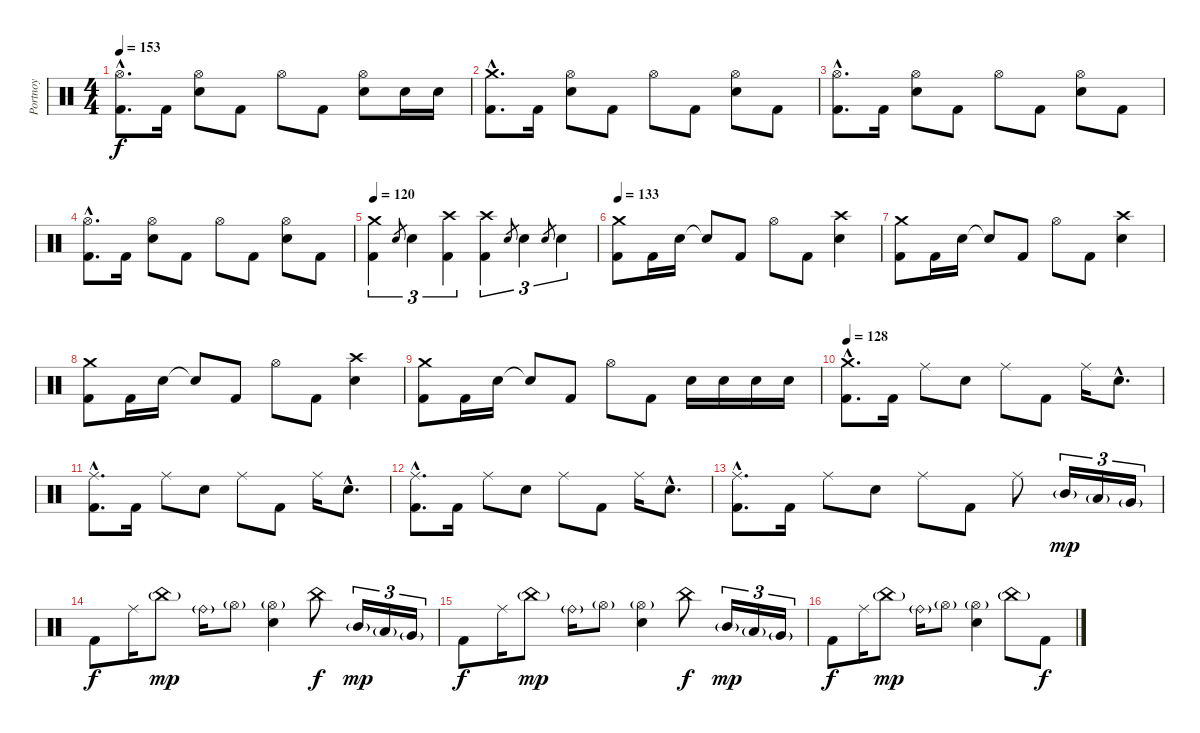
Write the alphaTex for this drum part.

\track ("Portnoy" "Portnoy") {instrument percussion}
\staff {score}
\articulation defaults
\ts (4 4)
\tempo 153
\clef neutral
\ks c
("Kick (hit) 2"{hac} "Hi-Hat (open)"{hac}).8{d dy f} "Kick (hit) 2".16 ("Electric Snare (hit)" "Hi-Hat (open)").8 "Kick (hit) 2".8 "Hi-Hat (open)".8 "Kick (hit) 2".8 ("Electric Snare (hit)" "Hi-Hat (open)").8 "Electric Snare (hit)".16 "Electric Snare (hit)".16 |
("Kick (hit) 2"{hac} "Crash medium (hit)"{hac}).8{d} "Kick (hit) 2".16 ("Electric Snare (hit)" "Hi-Hat (open)").8 "Kick (hit) 2".8 "Hi-Hat (open)".8 "Kick (hit) 2".8 ("Electric Snare (hit)" "Hi-Hat (open)").8 "Kick (hit) 2".8 |
("Kick (hit) 2"{hac} "Hi-Hat (open)"{hac}).8{d} "Kick (hit) 2".16 ("Electric Snare (hit)" "Hi-Hat (open)").8 "Kick (hit) 2".8 "Hi-Hat (open)".8 "Kick (hit) 2".8 ("Electric Snare (hit)" "Hi-Hat (open)").8 "Kick (hit) 2".8 |
("Kick (hit) 2"{hac} "Hi-Hat (open)"{hac}).8{d} "Kick (hit) 2".16 ("Electric Snare (hit)" "Hi-Hat (open)").8 "Kick (hit) 2".8 "Hi-Hat (open)".8 "Kick (hit) 2".8 ("Electric Snare (hit)" "Hi-Hat (open)").8 "Kick (hit) 2".8 |
\tempo 120
("Kick (hit) 2" "Crash medium (hit)").4{tu (3 2)} "Electric Snare (hit)".8{gr} "Electric Snare (hit)".4{tu (3 2)} ("Kick (hit) 2" "Crash high (hit)").4{tu (3 2)} ("Kick (hit) 2" "Crash high (hit)").4{tu (3 2)} "Electric Snare (hit)".8{gr} "Electric Snare (hit)".4{tu (3 2)} "Electric Snare (hit)".8{gr} "Electric Snare (hit)".4{tu (3 2)} |
\tempo 133
("Kick (hit) 2" "Crash medium (hit)").8 "Kick (hit) 2".16 "Electric Snare (hit)".16 "Snare (hit)"{t}.8 "Kick (hit) 2".8 "Hi-Hat (open)".8 "Kick (hit) 2".8 ("Electric Snare (hit)" "Crash high (hit)").4 |
("Kick (hit) 2" "Crash medium (hit)").8 "Kick (hit) 2".16 "Electric Snare (hit)".16 "Snare (hit)"{t}.8 "Kick (hit) 2".8 "Hi-Hat (open)".8 "Kick (hit) 2".8 ("Electric Snare (hit)" "Crash high (hit)").4 |
("Kick (hit) 2" "Crash medium (hit)").8 "Kick (hit) 2".16 "Electric Snare (hit)".16 "Snare (hit)"{t}.8 "Kick (hit) 2".8 "Hi-Hat (open)".8 "Kick (hit) 2".8 ("Electric Snare (hit)" "Crash high (hit)").4 |
("Kick (hit) 2" "Crash medium (hit)").8 "Kick (hit) 2".16 "Electric Snare (hit)".16 "Snare (hit)"{t}.8 "Kick (hit) 2".8 "Hi-Hat (open)".8 "Kick (hit) 2".8 "Electric Snare (hit)".16 "Electric Snare (hit)".16 "Electric Snare (hit)".16 "Electric Snare (hit)".16 |
\tempo 128
("Kick (hit) 2"{hac} "Crash medium (hit)"{hac}).8{d} "Kick (hit) 2".16 "Ride (middle)".8 "Electric Snare (hit)".8 "Ride (middle)".8 "Kick (hit) 2".8 "Ride (middle)".16 "Electric Snare (hit)"{hac}.8{d} |
("Kick (hit) 2"{hac} "Ride (middle)"{hac}).8{d} "Kick (hit) 2".16 "Ride (middle)".8 "Electric Snare (hit)".8 "Ride (middle)".8 "Kick (hit) 2".8 "Ride (middle)".16 "Electric Snare (hit)"{hac}.8{d} |
("Kick (hit) 2"{hac} "Ride (middle)"{hac}).8{d} "Kick (hit) 2".16 "Ride (middle)".8 "Electric Snare (hit)".8 "Ride (middle)".8 "Kick (hit) 2".8 "Ride (middle)".16 "Electric Snare (hit)"{hac}.8{d} |
("Kick (hit) 2"{hac} "Ride (middle)"{hac}).8{d} "Kick (hit) 2".16 "Ride (middle)".8 "Electric Snare (hit)".8 "Ride (middle)".8 "Kick (hit) 2".8 "Ride (middle)".8 "Mid Tom (hit)"{g}.16{tu (3 2) dy mp} "Low Tom (hit)"{g}.16{tu (3 2)} "Very Low Tom (hit)"{g}.16{tu (3 2)} |
"Kick (hit) 2".8{dy f} "Ride (middle)".16 "China (hit)"{g}.8{dy mp} "Ride (bell)"{g}.16 "Hi-Hat (open)"{g}.8 ("Electric Snare (hit)" "Hi-Hat (open)"{g}).4 "China (hit)"{pm}.8{dy f} "Mid Tom (hit)"{g}.16{tu (3 2) dy mp} "Low Tom (hit)"{g}.16{tu (3 2)} "Very Low Tom (hit)"{g}.16{tu (3 2)} |
"Kick (hit) 2".8{dy f} "Ride (middle)".16 "China (hit)"{g}.8{dy mp} "Ride (bell)"{g}.16 "Hi-Hat (open)"{g}.8 ("Electric Snare (hit)" "Hi-Hat (open)"{g}).4 "China (hit)"{pm}.8{dy f} "Mid Tom (hit)"{g}.16{tu (3 2) dy mp} "Low Tom (hit)"{g}.16{tu (3 2)} "Very Low Tom (hit)"{g}.16{tu (3 2)} |
"Kick (hit) 2".8{dy f} "Ride (middle)".16 "China (hit)"{g}.8{dy mp} "Ride (bell)"{g}.16 "Hi-Hat (open)"{g}.8 ("Electric Snare (hit)" "Hi-Hat (open)"{g}).4 "China (hit)"{g pm}.8 "Kick (hit) 2".8{dy f}
